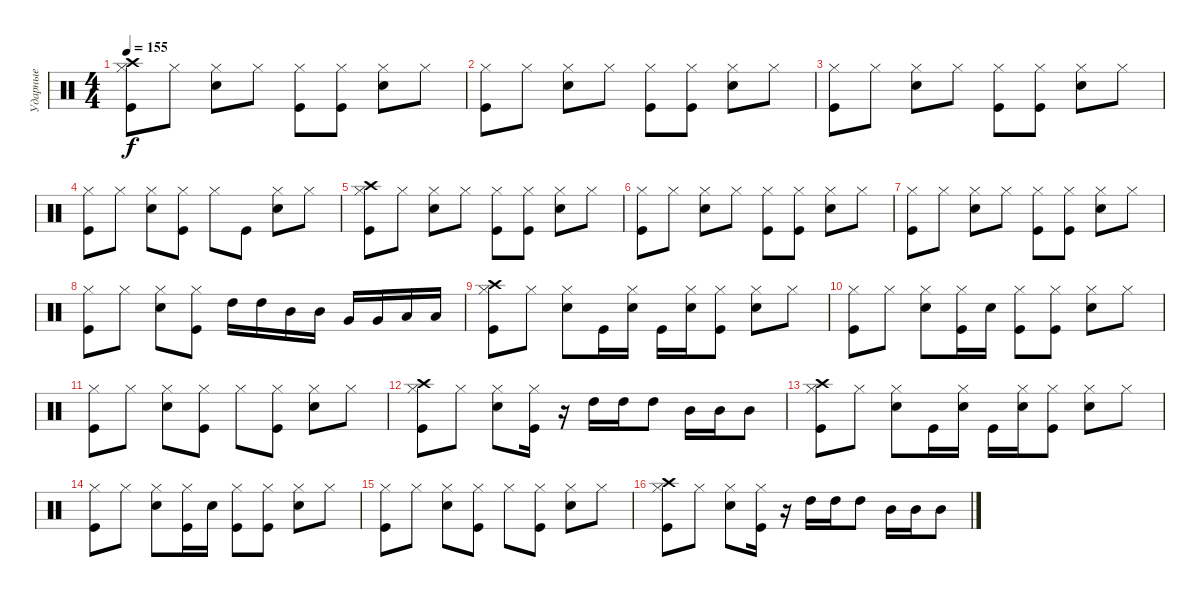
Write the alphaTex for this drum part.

\track ("Ударные" "Ударные") {instrument percussion}
\staff {score}
\articulation defaults
\ts (4 4)
\tempo 155
\clef neutral
\ks c
("Crash high (hit)" "Hi-Hat (closed)" "Kick (hit)").8{dy f} "Hi-Hat (closed)".8 ("Hi-Hat (closed)" "Snare (hit) 2").8 "Hi-Hat (closed)".8 ("Hi-Hat (closed)" "Kick (hit)").8 ("Hi-Hat (closed)" "Kick (hit)").8 ("Hi-Hat (closed)" "Snare (hit) 2").8 "Hi-Hat (closed)".8 |
("Hi-Hat (closed)" "Kick (hit)").8 "Hi-Hat (closed)".8 ("Hi-Hat (closed)" "Snare (hit) 2").8 "Hi-Hat (closed)".8 ("Hi-Hat (closed)" "Kick (hit)").8 ("Hi-Hat (closed)" "Kick (hit)").8 ("Hi-Hat (closed)" "Snare (hit) 2").8 "Hi-Hat (closed)".8 |
("Hi-Hat (closed)" "Kick (hit)").8 "Hi-Hat (closed)".8 ("Hi-Hat (closed)" "Snare (hit) 2").8 "Hi-Hat (closed)".8 ("Hi-Hat (closed)" "Kick (hit)").8 ("Hi-Hat (closed)" "Kick (hit)").8 ("Hi-Hat (closed)" "Snare (hit) 2").8 "Hi-Hat (closed)".8 |
("Hi-Hat (closed)" "Kick (hit)").8 "Hi-Hat (closed)".8 ("Hi-Hat (closed)" "Snare (hit) 2").8 ("Hi-Hat (closed)" "Kick (hit)").8 "Hi-Hat (closed)".8 "Kick (hit)".8 ("Hi-Hat (closed)" "Snare (hit) 2").8 "Hi-Hat (closed)".8 |
("Crash high (hit)" "Hi-Hat (closed)" "Kick (hit)").8 "Hi-Hat (closed)".8 ("Hi-Hat (closed)" "Snare (hit) 2").8 "Hi-Hat (closed)".8 ("Hi-Hat (closed)" "Kick (hit)").8 ("Hi-Hat (closed)" "Kick (hit)").8 ("Hi-Hat (closed)" "Snare (hit) 2").8 "Hi-Hat (closed)".8 |
("Hi-Hat (closed)" "Kick (hit)").8 "Hi-Hat (closed)".8 ("Hi-Hat (closed)" "Snare (hit) 2").8 "Hi-Hat (closed)".8 ("Hi-Hat (closed)" "Kick (hit)").8 ("Hi-Hat (closed)" "Kick (hit)").8 ("Hi-Hat (closed)" "Snare (hit) 2").8 "Hi-Hat (closed)".8 |
("Hi-Hat (closed)" "Kick (hit)").8 "Hi-Hat (closed)".8 ("Hi-Hat (closed)" "Snare (hit) 2").8 "Hi-Hat (closed)".8 ("Hi-Hat (closed)" "Kick (hit)").8 ("Hi-Hat (closed)" "Kick (hit)").8 ("Hi-Hat (closed)" "Snare (hit) 2").8 "Hi-Hat (closed)".8 |
("Hi-Hat (closed)" "Kick (hit)").8 "Hi-Hat (closed)".8 ("Hi-Hat (closed)" "Snare (hit) 2").8 ("Hi-Hat (closed)" "Kick (hit)").8 "High Tom (hit)".16 "High Tom (hit)".16 "Mid Tom (hit)".16 "Mid Tom (hit)".16 "Very Low Tom (hit)".16 "Very Low Tom (hit)".16 "Low Floor Tom (hit)".16 "Low Floor Tom (hit)".16 |
("Crash high (hit)" "Hi-Hat (closed)" "Kick (hit)").8 "Hi-Hat (closed)".8 ("Hi-Hat (closed)" "Snare (hit) 2").8 "Kick (hit)".16 ("Hi-Hat (closed)" "Snare (hit) 2").16 "Kick (hit)".16 ("Hi-Hat (closed)" "Snare (hit) 2").16 ("Hi-Hat (closed)" "Kick (hit)").8 ("Hi-Hat (closed)" "Snare (hit) 2").8 "Hi-Hat (closed)".8 |
("Hi-Hat (closed)" "Kick (hit)").8 "Hi-Hat (closed)".8 ("Hi-Hat (closed)" "Snare (hit) 2").8 ("Hi-Hat (closed)" "Kick (hit)").16 "Snare (hit) 2".16 ("Hi-Hat (closed)" "Kick (hit)").8 ("Hi-Hat (closed)" "Kick (hit)").8 ("Hi-Hat (closed)" "Snare (hit) 2").8 "Hi-Hat (closed)".8 |
("Hi-Hat (closed)" "Kick (hit)").8 "Hi-Hat (closed)".8 ("Hi-Hat (closed)" "Snare (hit) 2").8 ("Hi-Hat (closed)" "Kick (hit)").8 "Hi-Hat (closed)".8 ("Hi-Hat (closed)" "Kick (hit)").8 ("Hi-Hat (closed)" "Snare (hit) 2").8 "Hi-Hat (closed)".8 |
("Crash high (hit)" "Hi-Hat (closed)" "Kick (hit)").8 "Hi-Hat (closed)".8 ("Hi-Hat (closed)" "Snare (hit) 2").8 ("Hi-Hat (closed)" "Kick (hit)").16 r.16 "High Tom (hit)".16 "High Tom (hit)".16 "High Tom (hit)".8 "Mid Tom (hit)".16 "Mid Tom (hit)".16 "Mid Tom (hit)".8 |
("Crash high (hit)" "Hi-Hat (closed)" "Kick (hit)").8 "Hi-Hat (closed)".8 ("Hi-Hat (closed)" "Snare (hit) 2").8 "Kick (hit)".16 ("Hi-Hat (closed)" "Snare (hit) 2").16 "Kick (hit)".16 ("Hi-Hat (closed)" "Snare (hit) 2").16 ("Hi-Hat (closed)" "Kick (hit)").8 ("Hi-Hat (closed)" "Snare (hit) 2").8 "Hi-Hat (closed)".8 |
("Hi-Hat (closed)" "Kick (hit)").8 "Hi-Hat (closed)".8 ("Hi-Hat (closed)" "Snare (hit) 2").8 ("Hi-Hat (closed)" "Kick (hit)").16 "Snare (hit) 2".16 ("Hi-Hat (closed)" "Kick (hit)").8 ("Hi-Hat (closed)" "Kick (hit)").8 ("Hi-Hat (closed)" "Snare (hit) 2").8 "Hi-Hat (closed)".8 |
("Hi-Hat (closed)" "Kick (hit)").8 "Hi-Hat (closed)".8 ("Hi-Hat (closed)" "Snare (hit) 2").8 ("Hi-Hat (closed)" "Kick (hit)").8 "Hi-Hat (closed)".8 ("Hi-Hat (closed)" "Kick (hit)").8 ("Hi-Hat (closed)" "Snare (hit) 2").8 "Hi-Hat (closed)".8 |
("Crash high (hit)" "Hi-Hat (closed)" "Kick (hit)").8 "Hi-Hat (closed)".8 ("Hi-Hat (closed)" "Snare (hit) 2").8 ("Hi-Hat (closed)" "Kick (hit)").16 r.16 "High Tom (hit)".16 "High Tom (hit)".16 "High Tom (hit)".8 "Mid Tom (hit)".16 "Mid Tom (hit)".16 "Mid Tom (hit)".8
